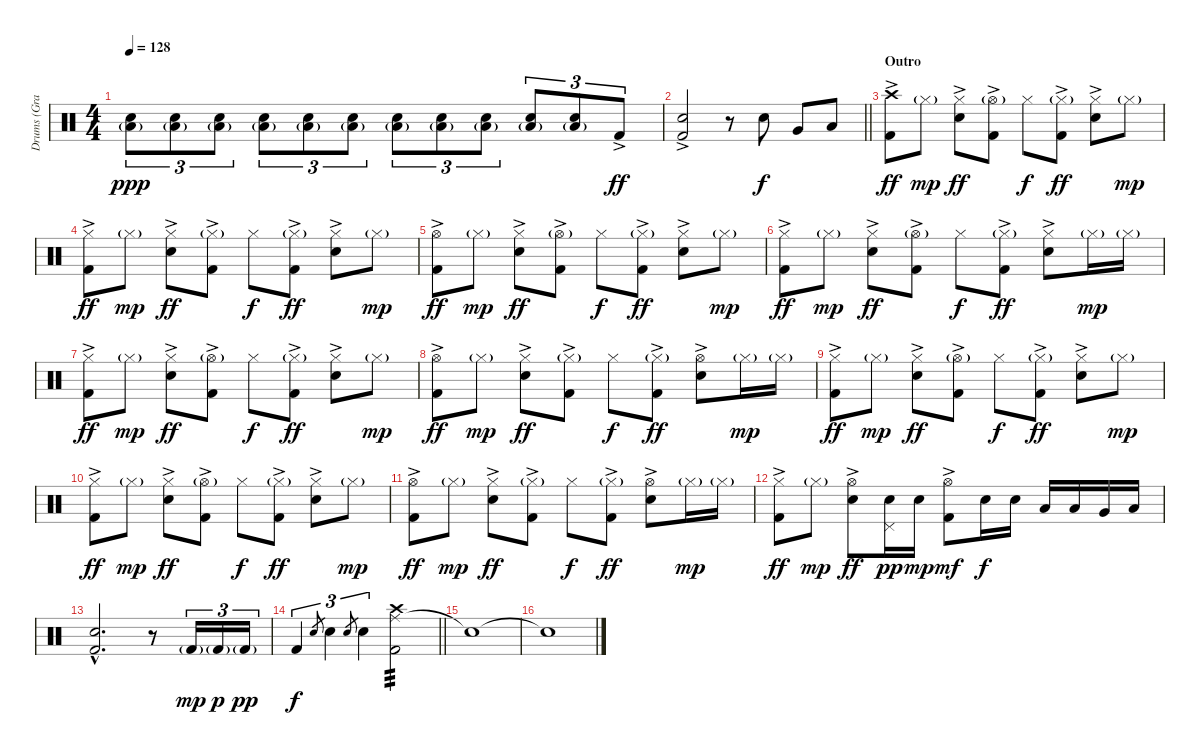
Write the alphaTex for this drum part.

\track ("Drums (Graham)" "Drums (Gra") {instrument percussion}
\staff {score}
\articulation defaults
\ts (4 4)
\tempo 128
\clef neutral
\ks c
("Snare (hit) 2" "Low Floor Tom (hit)"{g}).8{tu (3 2) dy ppp} ("Snare (hit) 2" "Low Floor Tom (hit)"{g}).8{tu (3 2)} ("Snare (hit) 2" "Low Floor Tom (hit)"{g}).8{tu (3 2)} ("Snare (hit) 2" "Low Floor Tom (hit)"{g}).8{tu (3 2)} ("Snare (hit) 2" "Low Floor Tom (hit)"{g}).8{tu (3 2)} ("Snare (hit) 2" "Low Floor Tom (hit)"{g}).8{tu (3 2)} ("Snare (hit) 2" "Low Floor Tom (hit)"{g}).8{tu (3 2)} ("Snare (hit) 2" "Low Floor Tom (hit)"{g}).8{tu (3 2)} ("Snare (hit) 2" "Low Floor Tom (hit)"{g}).8{tu (3 2)} ("Snare (hit) 2" "Low Floor Tom (hit)"{g}).8{tu (3 2)} ("Snare (hit) 2" "Low Floor Tom (hit)"{g}).8{tu (3 2)} "Kick (hit) 2"{ac}.8{tu (3 2) dy ff} |
\barLineRight lightlight
("Snare (hit) 2"{ac} "Kick (hit) 2"{ac}).2 r.8 "Snare (hit) 2".8{dy f} "Very Low Tom (hit)".8 "Low Floor Tom (hit)".8 |
\section ("" "Outro")
("Crash high (hit)" "Kick (hit) 2"{ac}).8{dy ff} "Hi-Hat (closed)"{g}.8{dy mp} ("Hi-Hat (closed)" "Snare (hit) 2"{ac}).8{dy ff} ("Hi-Hat (open)"{g} "Kick (hit) 2"{ac}).8 "Hi-Hat (closed)".8{dy f} ("Hi-Hat (closed)"{g} "Kick (hit) 2"{ac}).8{dy ff} ("Hi-Hat (closed)" "Snare (hit) 2"{ac}).8 "Hi-Hat (closed)"{g}.8{dy mp} |
("Hi-Hat (closed)" "Kick (hit) 2"{ac}).8{dy ff} "Hi-Hat (closed)"{g}.8{dy mp} ("Hi-Hat (closed)" "Snare (hit) 2"{ac}).8{dy ff} ("Hi-Hat (closed)"{g} "Kick (hit) 2"{ac}).8 "Hi-Hat (closed)".8{dy f} ("Hi-Hat (closed)"{g} "Kick (hit) 2"{ac}).8{dy ff} ("Hi-Hat (closed)" "Snare (hit) 2"{ac}).8 "Hi-Hat (closed)"{g}.8{dy mp} |
("Hi-Hat (open)" "Kick (hit) 2"{ac}).8{dy ff} "Hi-Hat (closed)"{g}.8{dy mp} ("Hi-Hat (closed)" "Snare (hit) 2"{ac}).8{dy ff} ("Hi-Hat (open)"{g} "Kick (hit) 2"{ac}).8 "Hi-Hat (closed)".8{dy f} ("Hi-Hat (closed)"{g} "Kick (hit) 2"{ac}).8{dy ff} ("Hi-Hat (closed)" "Snare (hit) 2"{ac}).8 "Hi-Hat (closed)"{g}.8{dy mp} |
("Hi-Hat (closed)" "Kick (hit) 2"{ac}).8{dy ff} "Hi-Hat (closed)"{g}.8{dy mp} ("Hi-Hat (closed)" "Snare (hit) 2"{ac}).8{dy ff} ("Hi-Hat (open)"{g} "Kick (hit) 2"{ac}).8 "Hi-Hat (closed)".8{dy f} ("Hi-Hat (closed)"{g} "Kick (hit) 2"{ac}).8{dy ff} ("Hi-Hat (closed)" "Snare (hit) 2"{ac}).8 "Hi-Hat (closed)"{g}.16{dy mp} "Hi-Hat (closed)"{g}.16 |
("Hi-Hat (closed)" "Kick (hit) 2"{ac}).8{dy ff} "Hi-Hat (closed)"{g}.8{dy mp} ("Hi-Hat (closed)" "Snare (hit) 2"{ac}).8{dy ff} ("Hi-Hat (open)"{g} "Kick (hit) 2"{ac}).8 "Hi-Hat (closed)".8{dy f} ("Hi-Hat (closed)"{g} "Kick (hit) 2"{ac}).8{dy ff} ("Hi-Hat (closed)" "Snare (hit) 2"{ac}).8 "Hi-Hat (closed)"{g}.8{dy mp} |
("Hi-Hat (open)" "Kick (hit) 2"{ac}).8{dy ff} "Hi-Hat (closed)"{g}.8{dy mp} ("Hi-Hat (closed)" "Snare (hit) 2"{ac}).8{dy ff} ("Hi-Hat (closed)"{g} "Kick (hit) 2"{ac}).8 "Hi-Hat (closed)".8{dy f} ("Hi-Hat (closed)"{g} "Kick (hit) 2"{ac}).8{dy ff} ("Hi-Hat (open)" "Snare (hit) 2"{ac}).8 "Hi-Hat (closed)"{g}.16{dy mp} "Hi-Hat (closed)"{g}.16 |
("Hi-Hat (closed)" "Kick (hit) 2"{ac}).8{dy ff} "Hi-Hat (closed)"{g}.8{dy mp} ("Hi-Hat (closed)" "Snare (hit) 2"{ac}).8{dy ff} ("Hi-Hat (open)"{g} "Kick (hit) 2"{ac}).8 "Hi-Hat (closed)".8{dy f} ("Hi-Hat (closed)"{g} "Kick (hit) 2"{ac}).8{dy ff} ("Hi-Hat (closed)" "Snare (hit) 2"{ac}).8 "Hi-Hat (closed)"{g}.8{dy mp} |
("Hi-Hat (closed)" "Kick (hit) 2"{ac}).8{dy ff} "Hi-Hat (closed)"{g}.8{dy mp} ("Hi-Hat (closed)" "Snare (hit) 2"{ac}).8{dy ff} ("Hi-Hat (open)"{g} "Kick (hit) 2"{ac}).8 "Hi-Hat (closed)".8{dy f} ("Hi-Hat (closed)"{g} "Kick (hit) 2"{ac}).8{dy ff} ("Hi-Hat (closed)" "Snare (hit) 2"{ac}).8 "Hi-Hat (closed)"{g}.8{dy mp} |
("Hi-Hat (open)" "Kick (hit) 2"{ac}).8{dy ff} "Hi-Hat (closed)"{g}.8{dy mp} ("Hi-Hat (closed)" "Snare (hit) 2"{ac}).8{dy ff} ("Hi-Hat (closed)"{g} "Kick (hit) 2"{ac}).8 "Hi-Hat (closed)".8{dy f} ("Hi-Hat (closed)"{g} "Kick (hit) 2"{ac}).8{dy ff} ("Hi-Hat (open)" "Snare (hit) 2"{ac}).8 "Hi-Hat (closed)"{g}.16{dy mp} "Hi-Hat (closed)"{g}.16 |
("Hi-Hat (closed)" "Kick (hit) 2"{ac}).8{dy ff} "Hi-Hat (closed)"{g}.8{dy mp} ("Hi-Hat (open)" "Snare (hit) 2"{ac}).8{dy ff} ("Pedal Hi-Hat (hit)" "Snare (hit) 2").16{dy pp} "Snare (hit) 2".16{dy mp} ("Hi-Hat (open)" "Kick (hit) 2"{ac}).8{dy mf} "Snare (hit) 2".16{dy f} "Snare (hit) 2".16 "Low Tom (hit)".16 "Low Tom (hit)".16 "Very Low Tom (hit)".16 "Low Floor Tom (hit)".16 |
("Snare (hit) 2"{hac} "Kick (hit) 2"{hac}).2{d} r.8 "Kick (hit) 2"{g}.16{tu (3 2) dy mp} "Kick (hit) 2"{g}.16{tu (3 2) dy p} "Kick (hit) 2"{g}.16{tu (3 2) dy pp} |
\barLineRight lightlight "Kick (hit) 2".4{tu (3 2) dy f} "Snare (hit) 2".8{gr} "Snare (hit) 2".4{tu (3 2)} "Snare (hit) 2".8{gr} "Snare (hit) 2".4{tu (3 2)}
("Ride (middle)" "Crash high (hit)" "Kick (hit) 2").2{tp 3} |
"Snare (hit)"{t}.1 |
"Snare (hit)"{t}.1
